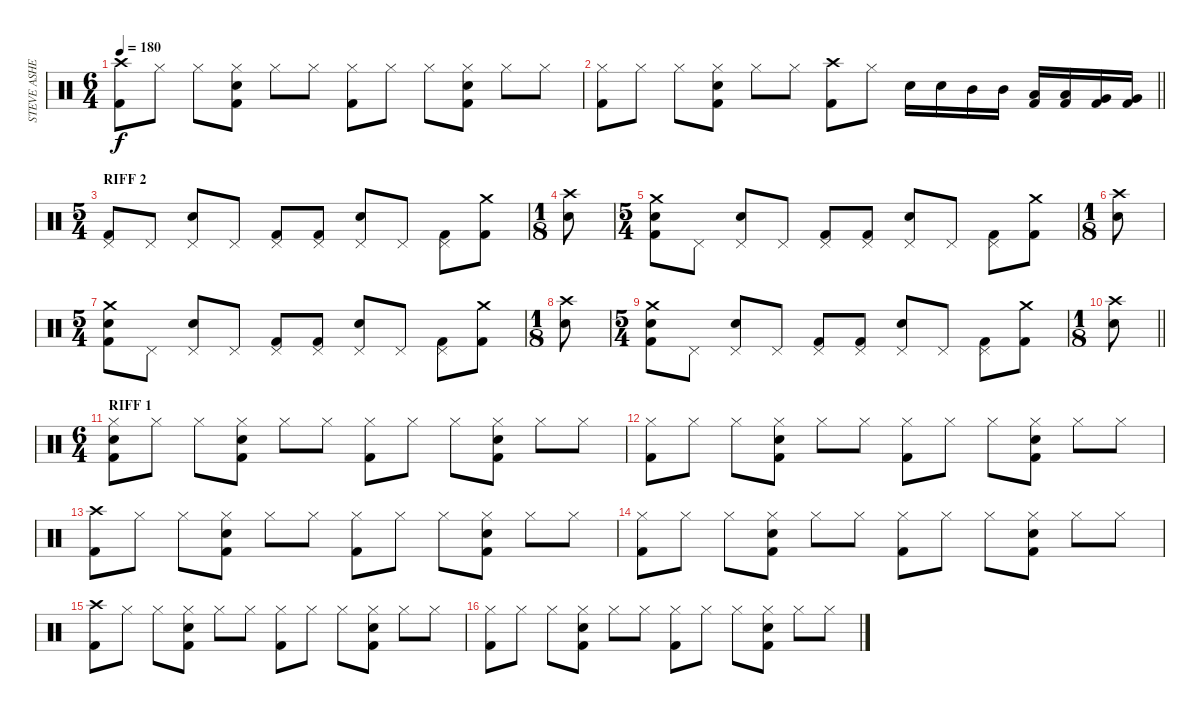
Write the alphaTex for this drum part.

\track ("STEVE ASHEIM" "STEVE ASHE") {instrument percussion}
\staff {score}
\articulation defaults
\ts (6 4)
\tempo 180
\clef neutral
\ks c
("Crash high (hit)" "Kick (hit) 2").8{dy f} "Hi-Hat (closed)".8 "Hi-Hat (closed)".8 ("Hi-Hat (closed)" "Snare (hit) 2" "Kick (hit) 2").8 "Hi-Hat (closed)".8 "Hi-Hat (closed)".8 ("Hi-Hat (closed)" "Kick (hit) 2").8 "Hi-Hat (closed)".8 "Hi-Hat (closed)".8 ("Hi-Hat (closed)" "Snare (hit) 2" "Kick (hit) 2").8 "Hi-Hat (closed)".8 "Hi-Hat (closed)".8 |
\barLineRight lightlight
("Hi-Hat (closed)" "Kick (hit) 2").8 "Hi-Hat (closed)".8 "Hi-Hat (closed)".8 ("Hi-Hat (closed)" "Snare (hit) 2" "Kick (hit) 2").8 "Hi-Hat (closed)".8 "Hi-Hat (closed)".8 ("Crash high (hit)" "Kick (hit) 2").8 "Hi-Hat (closed)".8 "Snare (hit) 2".16 "Snare (hit) 2".16 "Mid Tom (hit)".16 "Mid Tom (hit)".16 ("Low Tom (hit)" "Kick (hit) 2").16 ("Low Tom (hit)" "Kick (hit) 2").16 ("Very Low Tom (hit)" "Kick (hit) 2").16 ("Very Low Tom (hit)" "Kick (hit) 2").16 |
\ts (5 4)
\section ("" "RIFF 2")
("Pedal Hi-Hat (hit)" "Kick (hit) 2").8 "Pedal Hi-Hat (hit)".8 ("Pedal Hi-Hat (hit)" "Snare (hit) 2").8 "Pedal Hi-Hat (hit)".8 ("Pedal Hi-Hat (hit)" "Kick (hit) 2").8 ("Pedal Hi-Hat (hit)" "Kick (hit) 2").8 ("Pedal Hi-Hat (hit)" "Snare (hit) 2").8 "Pedal Hi-Hat (hit)".8 ("Pedal Hi-Hat (hit)" "Kick (hit) 2").8 ("Crash medium (hit)" "Kick (hit) 2").8 |
\ts (1 8)
("Crash high (hit)" "Snare (hit) 2").8 |
\ts (5 4)
("Crash medium (hit)" "Snare (hit) 2" "Kick (hit) 2").8 "Pedal Hi-Hat (hit)".8 ("Pedal Hi-Hat (hit)" "Snare (hit) 2").8 "Pedal Hi-Hat (hit)".8 ("Pedal Hi-Hat (hit)" "Kick (hit) 2").8 ("Pedal Hi-Hat (hit)" "Kick (hit) 2").8 ("Pedal Hi-Hat (hit)" "Snare (hit) 2").8 "Pedal Hi-Hat (hit)".8 ("Pedal Hi-Hat (hit)" "Kick (hit) 2").8 ("Crash medium (hit)" "Kick (hit) 2").8 |
\ts (1 8)
("Crash high (hit)" "Snare (hit) 2").8 |
\ts (5 4)
("Crash medium (hit)" "Snare (hit) 2" "Kick (hit) 2").8 "Pedal Hi-Hat (hit)".8 ("Pedal Hi-Hat (hit)" "Snare (hit) 2").8 "Pedal Hi-Hat (hit)".8 ("Pedal Hi-Hat (hit)" "Kick (hit) 2").8 ("Pedal Hi-Hat (hit)" "Kick (hit) 2").8 ("Pedal Hi-Hat (hit)" "Snare (hit) 2").8 "Pedal Hi-Hat (hit)".8 ("Pedal Hi-Hat (hit)" "Kick (hit) 2").8 ("Crash medium (hit)" "Kick (hit) 2").8 |
\ts (1 8)
("Crash high (hit)" "Snare (hit) 2").8 |
\ts (5 4)
("Crash medium (hit)" "Snare (hit) 2" "Kick (hit) 2").8 "Pedal Hi-Hat (hit)".8 ("Pedal Hi-Hat (hit)" "Snare (hit) 2").8 "Pedal Hi-Hat (hit)".8 ("Pedal Hi-Hat (hit)" "Kick (hit) 2").8 ("Pedal Hi-Hat (hit)" "Kick (hit) 2").8 ("Pedal Hi-Hat (hit)" "Snare (hit) 2").8 "Pedal Hi-Hat (hit)".8 ("Pedal Hi-Hat (hit)" "Kick (hit) 2").8 ("Crash medium (hit)" "Kick (hit) 2").8 |
\ts (1 8)
\barLineRight lightlight
("Crash high (hit)" "Snare (hit) 2").8 |
\ts (6 4)
\section ("" "RIFF 1")
("Hi-Hat (closed)" "Snare (hit) 2" "Kick (hit) 2").8 "Hi-Hat (closed)".8 "Hi-Hat (closed)".8 ("Hi-Hat (closed)" "Snare (hit) 2" "Kick (hit) 2").8 "Hi-Hat (closed)".8 "Hi-Hat (closed)".8 ("Hi-Hat (closed)" "Kick (hit) 2").8 "Hi-Hat (closed)".8 "Hi-Hat (closed)".8 ("Hi-Hat (closed)" "Snare (hit) 2" "Kick (hit) 2").8 "Hi-Hat (closed)".8 "Hi-Hat (closed)".8 |
("Hi-Hat (closed)" "Kick (hit) 2").8 "Hi-Hat (closed)".8 "Hi-Hat (closed)".8 ("Hi-Hat (closed)" "Snare (hit) 2" "Kick (hit) 2").8 "Hi-Hat (closed)".8 "Hi-Hat (closed)".8 ("Hi-Hat (closed)" "Kick (hit) 2").8 "Hi-Hat (closed)".8 "Hi-Hat (closed)".8 ("Hi-Hat (closed)" "Snare (hit) 2" "Kick (hit) 2").8 "Hi-Hat (closed)".8 "Hi-Hat (closed)".8 |
("Crash high (hit)" "Kick (hit) 2").8 "Hi-Hat (closed)".8 "Hi-Hat (closed)".8 ("Hi-Hat (closed)" "Snare (hit) 2" "Kick (hit) 2").8 "Hi-Hat (closed)".8 "Hi-Hat (closed)".8 ("Hi-Hat (closed)" "Kick (hit) 2").8 "Hi-Hat (closed)".8 "Hi-Hat (closed)".8 ("Hi-Hat (closed)" "Snare (hit) 2" "Kick (hit) 2").8 "Hi-Hat (closed)".8 "Hi-Hat (closed)".8 |
("Hi-Hat (closed)" "Kick (hit) 2").8 "Hi-Hat (closed)".8 "Hi-Hat (closed)".8 ("Hi-Hat (closed)" "Snare (hit) 2" "Kick (hit) 2").8 "Hi-Hat (closed)".8 "Hi-Hat (closed)".8 ("Hi-Hat (closed)" "Kick (hit) 2").8 "Hi-Hat (closed)".8 "Hi-Hat (closed)".8 ("Hi-Hat (closed)" "Snare (hit) 2" "Kick (hit) 2").8 "Hi-Hat (closed)".8 "Hi-Hat (closed)".8 |
("Crash high (hit)" "Kick (hit) 2").8 "Hi-Hat (closed)".8 "Hi-Hat (closed)".8 ("Hi-Hat (closed)" "Snare (hit) 2" "Kick (hit) 2").8 "Hi-Hat (closed)".8 "Hi-Hat (closed)".8 ("Hi-Hat (closed)" "Kick (hit) 2").8 "Hi-Hat (closed)".8 "Hi-Hat (closed)".8 ("Hi-Hat (closed)" "Snare (hit) 2" "Kick (hit) 2").8 "Hi-Hat (closed)".8 "Hi-Hat (closed)".8 |
("Hi-Hat (closed)" "Kick (hit) 2").8 "Hi-Hat (closed)".8 "Hi-Hat (closed)".8 ("Hi-Hat (closed)" "Snare (hit) 2" "Kick (hit) 2").8 "Hi-Hat (closed)".8 "Hi-Hat (closed)".8 ("Hi-Hat (closed)" "Kick (hit) 2").8 "Hi-Hat (closed)".8 "Hi-Hat (closed)".8 ("Hi-Hat (closed)" "Snare (hit) 2" "Kick (hit) 2").8 "Hi-Hat (closed)".8 "Hi-Hat (closed)".8
